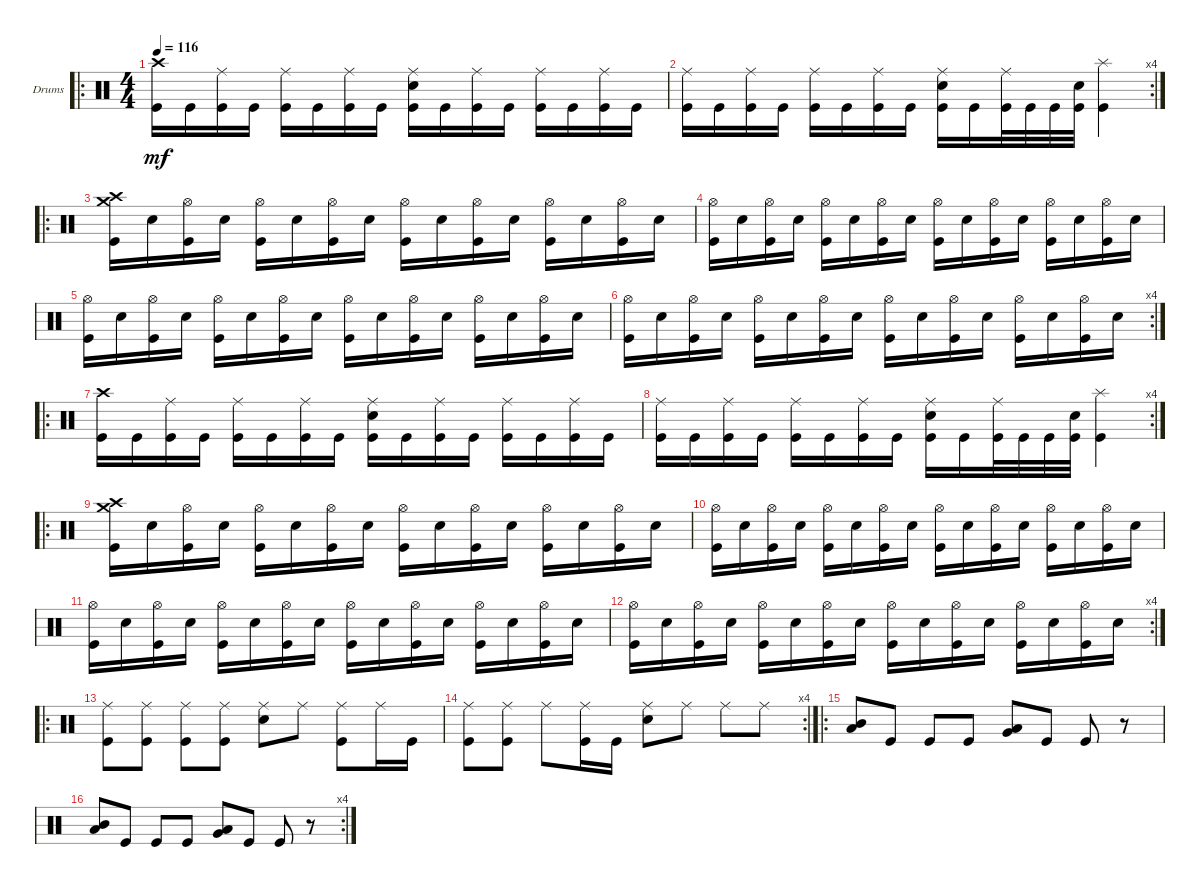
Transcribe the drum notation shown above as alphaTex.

\defaultSystemsLayout 4
\bracketExtendMode groupsimilarinstruments
\firstSystemTrackNameOrientation horizontal
\otherSystemsTrackNameOrientation horizontal
\track ("Incubus" "Drums") {instrument percussion}
\staff {score}
\articulation defaults
\ro
\ts (4 4)
\tempo 116
\clef neutral
\scale
0.377049
\ks c
("Kick (hit)" "Crash high (hit)").16{dy mf} "Kick (hit)".16 ("Kick (hit)" "Ride (middle)").16 "Kick (hit)".16 ("Kick (hit)" "Ride (middle)").16 "Kick (hit)".16 ("Kick (hit)" "Ride (middle)").16 "Kick (hit)".16 ("Kick (hit)" "Ride (middle)" "Snare (hit) 2").16 "Kick (hit)".16 ("Kick (hit)" "Ride (middle)").16 "Kick (hit)".16 ("Kick (hit)" "Ride (middle)").16 "Kick (hit)".16 ("Kick (hit)" "Ride (middle)").16 "Kick (hit)".16 |
\rc 4
\scale
0.333333 ("Kick (hit)" "Ride (middle)").16 "Kick (hit)".16 ("Kick (hit)" "Ride (middle)").16 "Kick (hit)".16 ("Kick (hit)" "Ride (middle)").16 "Kick (hit)".16 ("Kick (hit)" "Ride (middle)").16 "Kick (hit)".16 ("Kick (hit)" "Ride (middle)" "Snare (hit) 2").16 "Kick (hit)".16 ("Kick (hit)" "Ride (middle)").32 "Kick (hit)".32 "Kick (hit)".32 ("Kick (hit)" "Snare (hit) 2").32 ("Kick (hit)" "Splash (hit)").4 |
\ro
\scale
0.365079 ("Kick (hit)" "Crash medium (hit)" "Crash high (hit)").16 "Snare (hit) 2".16 ("Kick (hit)" "Hi-Hat (open)").16 "Snare (hit) 2".16 ("Hi-Hat (open)" "Kick (hit)").16 "Snare (hit) 2".16 ("Kick (hit)" "Hi-Hat (open)").16 "Snare (hit) 2".16 ("Kick (hit)" "Hi-Hat (open)").16 "Snare (hit) 2".16 ("Kick (hit)" "Hi-Hat (open)").16 "Snare (hit) 2".16 ("Kick (hit)" "Hi-Hat (open)").16 "Snare (hit) 2".16 ("Kick (hit)" "Hi-Hat (open)").16 "Snare (hit) 2".16 |
\scale
0.301587 ("Kick (hit)" "Hi-Hat (open)").16 "Snare (hit) 2".16 ("Kick (hit)" "Hi-Hat (open)").16 "Snare (hit) 2".16 ("Hi-Hat (open)" "Kick (hit)").16 "Snare (hit) 2".16 ("Kick (hit)" "Hi-Hat (open)").16 "Snare (hit) 2".16 ("Kick (hit)" "Hi-Hat (open)").16 "Snare (hit) 2".16 ("Kick (hit)" "Hi-Hat (open)").16 "Snare (hit) 2".16 ("Kick (hit)" "Hi-Hat (open)").16 "Snare (hit) 2".16 ("Kick (hit)" "Hi-Hat (open)").16 "Snare (hit) 2".16 |
\scale
0.301587 ("Kick (hit)" "Hi-Hat (open)").16 "Snare (hit) 2".16 ("Kick (hit)" "Hi-Hat (open)").16 "Snare (hit) 2".16 ("Hi-Hat (open)" "Kick (hit)").16 "Snare (hit) 2".16 ("Kick (hit)" "Hi-Hat (open)").16 "Snare (hit) 2".16 ("Kick (hit)" "Hi-Hat (open)").16 "Snare (hit) 2".16 ("Kick (hit)" "Hi-Hat (open)").16 "Snare (hit) 2".16 ("Kick (hit)" "Hi-Hat (open)").16 "Snare (hit) 2".16 ("Kick (hit)" "Hi-Hat (open)").16 "Snare (hit) 2".16 |
\rc 4
\scale
0.333333 ("Kick (hit)" "Hi-Hat (open)").16 "Snare (hit) 2".16 ("Kick (hit)" "Hi-Hat (open)").16 "Snare (hit) 2".16 ("Hi-Hat (open)" "Kick (hit)").16 "Snare (hit) 2".16 ("Kick (hit)" "Hi-Hat (open)").16 "Snare (hit) 2".16 ("Kick (hit)" "Hi-Hat (open)").16 "Snare (hit) 2".16 ("Kick (hit)" "Hi-Hat (open)").16 "Snare (hit) 2".16 ("Kick (hit)" "Hi-Hat (open)").16 "Snare (hit) 2".16 ("Kick (hit)" "Hi-Hat (open)").16 "Snare (hit) 2".16 |
\ro
\scale
0.365079 ("Kick (hit)" "Crash high (hit)").16 "Kick (hit)".16 ("Kick (hit)" "Ride (middle)").16 "Kick (hit)".16 ("Kick (hit)" "Ride (middle)").16 "Kick (hit)".16 ("Kick (hit)" "Ride (middle)").16 "Kick (hit)".16 ("Kick (hit)" "Ride (middle)" "Snare (hit) 2").16 "Kick (hit)".16 ("Kick (hit)" "Ride (middle)").16 "Kick (hit)".16 ("Kick (hit)" "Ride (middle)").16 "Kick (hit)".16 ("Kick (hit)" "Ride (middle)").16 "Kick (hit)".16 |
\rc 4
\scale
0.333333 ("Kick (hit)" "Ride (middle)").16 "Kick (hit)".16 ("Kick (hit)" "Ride (middle)").16 "Kick (hit)".16 ("Kick (hit)" "Ride (middle)").16 "Kick (hit)".16 ("Kick (hit)" "Ride (middle)").16 "Kick (hit)".16 ("Kick (hit)" "Ride (middle)" "Snare (hit) 2").16 "Kick (hit)".16 ("Kick (hit)" "Ride (middle)").32 "Kick (hit)".32 "Kick (hit)".32 ("Kick (hit)" "Snare (hit) 2").32 ("Kick (hit)" "Splash (hit)").4 |
\ro
\scale
0.365079 ("Kick (hit)" "Crash medium (hit)" "Crash high (hit)").16 "Snare (hit) 2".16 ("Kick (hit)" "Hi-Hat (open)").16 "Snare (hit) 2".16 ("Hi-Hat (open)" "Kick (hit)").16 "Snare (hit) 2".16 ("Kick (hit)" "Hi-Hat (open)").16 "Snare (hit) 2".16 ("Kick (hit)" "Hi-Hat (open)").16 "Snare (hit) 2".16 ("Kick (hit)" "Hi-Hat (open)").16 "Snare (hit) 2".16 ("Kick (hit)" "Hi-Hat (open)").16 "Snare (hit) 2".16 ("Kick (hit)" "Hi-Hat (open)").16 "Snare (hit) 2".16 |
\scale
0.301587 ("Kick (hit)" "Hi-Hat (open)").16 "Snare (hit) 2".16 ("Kick (hit)" "Hi-Hat (open)").16 "Snare (hit) 2".16 ("Hi-Hat (open)" "Kick (hit)").16 "Snare (hit) 2".16 ("Kick (hit)" "Hi-Hat (open)").16 "Snare (hit) 2".16 ("Kick (hit)" "Hi-Hat (open)").16 "Snare (hit) 2".16 ("Kick (hit)" "Hi-Hat (open)").16 "Snare (hit) 2".16 ("Kick (hit)" "Hi-Hat (open)").16 "Snare (hit) 2".16 ("Kick (hit)" "Hi-Hat (open)").16 "Snare (hit) 2".16 |
\scale
0.301587 ("Kick (hit)" "Hi-Hat (open)").16 "Snare (hit) 2".16 ("Kick (hit)" "Hi-Hat (open)").16 "Snare (hit) 2".16 ("Hi-Hat (open)" "Kick (hit)").16 "Snare (hit) 2".16 ("Kick (hit)" "Hi-Hat (open)").16 "Snare (hit) 2".16 ("Kick (hit)" "Hi-Hat (open)").16 "Snare (hit) 2".16 ("Kick (hit)" "Hi-Hat (open)").16 "Snare (hit) 2".16 ("Kick (hit)" "Hi-Hat (open)").16 "Snare (hit) 2".16 ("Kick (hit)" "Hi-Hat (open)").16 "Snare (hit) 2".16 |
\rc 4
\scale
0.333333 ("Kick (hit)" "Hi-Hat (open)").16 "Snare (hit) 2".16 ("Kick (hit)" "Hi-Hat (open)").16 "Snare (hit) 2".16 ("Hi-Hat (open)" "Kick (hit)").16 "Snare (hit) 2".16 ("Kick (hit)" "Hi-Hat (open)").16 "Snare (hit) 2".16 ("Kick (hit)" "Hi-Hat (open)").16 "Snare (hit) 2".16 ("Kick (hit)" "Hi-Hat (open)").16 "Snare (hit) 2".16 ("Kick (hit)" "Hi-Hat (open)").16 "Snare (hit) 2".16 ("Kick (hit)" "Hi-Hat (open)").16 "Snare (hit) 2".16 |
\ro
\scale
0.365079 ("Kick (hit)" "Ride (middle)").8 ("Kick (hit)" "Ride (middle)").8 ("Kick (hit)" "Ride (middle)").8 ("Ride (middle)" "Kick (hit)").8 ("Ride (middle)" "Snare (hit) 2").8 "Ride (middle)".8 ("Ride (middle)" "Kick (hit)").8 "Ride (middle)".16 "Kick (hit)".16 |
\rc 4
\scale
0.323077 ("Ride (middle)" "Kick (hit)").8 ("Ride (middle)" "Kick (hit)").8 "Ride (middle)".8 ("Ride (middle)" "Kick (hit)").16 "Kick (hit)".16 ("Ride (middle)" "Snare (hit) 2").8 "Ride (middle)".8 "Ride (middle)".8 "Ride (middle)".8 |
\ro
\scale
0.353846 ("Mid Tom (hit)" "Low Tom (hit)").8 "Kick (hit)".8 "Kick (hit)".8 "Kick (hit)".8 ("Low Tom (hit)" "Very Low Tom (hit)").8 "Kick (hit)".8 "Kick (hit)".8 r.8 |
\rc 4
\scale
0.323077 ("Mid Tom (hit)" "Low Tom (hit)").8 "Kick (hit)".8 "Kick (hit)".8 "Kick (hit)".8 ("Low Tom (hit)" "Very Low Tom (hit)").8 "Kick (hit)".8 "Kick (hit)".8 r.8
